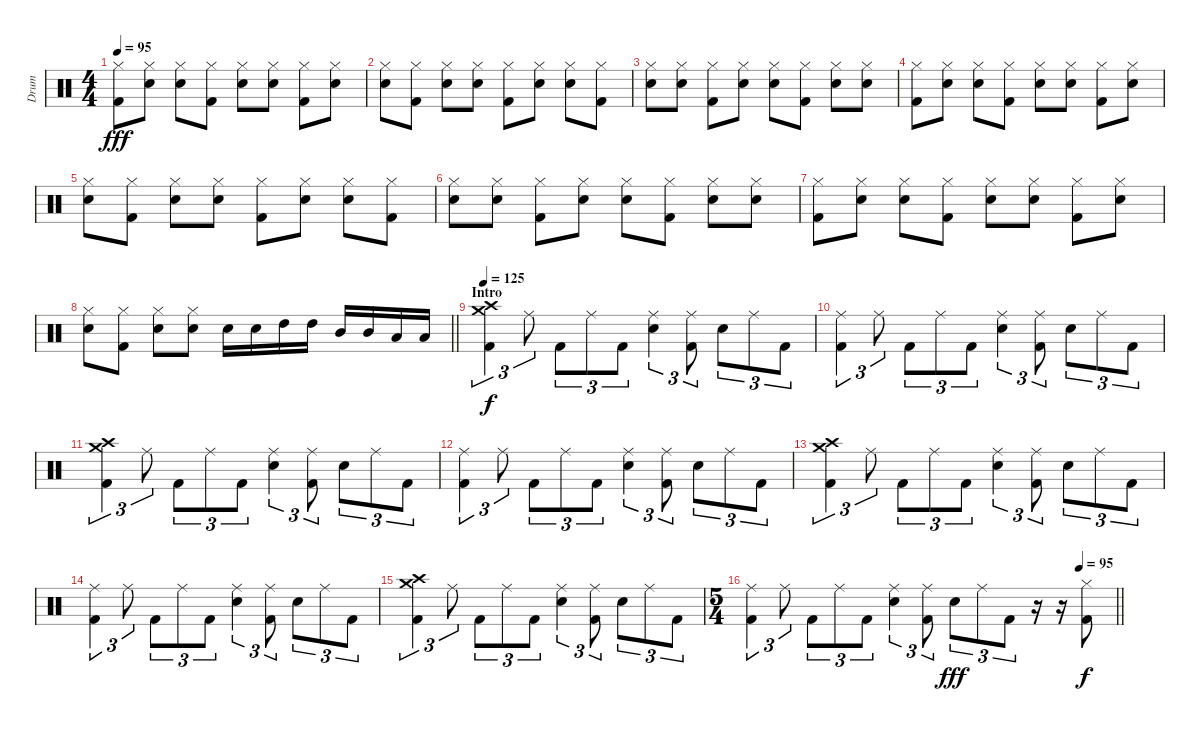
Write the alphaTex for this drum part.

\track ("Drum" "Drum") {instrument percussion}
\staff {score}
\articulation defaults
\ts (4 4)
\tempo 95
\clef neutral
\ks c
("Hi-Hat (closed)" "Kick (hit) 2").8{dy fff} ("Hi-Hat (closed)" "Snare (hit) 2").8 ("Hi-Hat (closed)" "Snare (hit) 2").8 ("Hi-Hat (closed)" "Kick (hit) 2").8 ("Hi-Hat (closed)" "Snare (hit) 2").8 ("Hi-Hat (closed)" "Snare (hit) 2").8 ("Hi-Hat (closed)" "Kick (hit) 2").8 ("Hi-Hat (closed)" "Snare (hit) 2").8 |
("Hi-Hat (closed)" "Snare (hit) 2").8 ("Hi-Hat (closed)" "Kick (hit) 2").8 ("Hi-Hat (closed)" "Snare (hit) 2").8 ("Hi-Hat (closed)" "Snare (hit) 2").8 ("Hi-Hat (closed)" "Kick (hit) 2").8 ("Hi-Hat (closed)" "Snare (hit) 2").8 ("Hi-Hat (closed)" "Snare (hit) 2").8 ("Hi-Hat (closed)" "Kick (hit) 2").8 |
("Hi-Hat (closed)" "Snare (hit) 2").8 ("Hi-Hat (closed)" "Snare (hit) 2").8 ("Hi-Hat (closed)" "Kick (hit) 2").8 ("Hi-Hat (closed)" "Snare (hit) 2").8 ("Hi-Hat (closed)" "Snare (hit) 2").8 ("Hi-Hat (closed)" "Kick (hit) 2").8 ("Hi-Hat (closed)" "Snare (hit) 2").8 ("Hi-Hat (closed)" "Snare (hit) 2").8 |
("Hi-Hat (closed)" "Kick (hit) 2").8 ("Hi-Hat (closed)" "Snare (hit) 2").8 ("Hi-Hat (closed)" "Snare (hit) 2").8 ("Hi-Hat (closed)" "Kick (hit) 2").8 ("Hi-Hat (closed)" "Snare (hit) 2").8 ("Hi-Hat (closed)" "Snare (hit) 2").8 ("Hi-Hat (closed)" "Kick (hit) 2").8 ("Hi-Hat (closed)" "Snare (hit) 2").8 |
("Hi-Hat (closed)" "Snare (hit) 2").8 ("Hi-Hat (closed)" "Kick (hit) 2").8 ("Hi-Hat (closed)" "Snare (hit) 2").8 ("Hi-Hat (closed)" "Snare (hit) 2").8 ("Hi-Hat (closed)" "Kick (hit) 2").8 ("Hi-Hat (closed)" "Snare (hit) 2").8 ("Hi-Hat (closed)" "Snare (hit) 2").8 ("Hi-Hat (closed)" "Kick (hit) 2").8 |
("Hi-Hat (closed)" "Snare (hit) 2").8 ("Hi-Hat (closed)" "Snare (hit) 2").8 ("Hi-Hat (closed)" "Kick (hit) 2").8 ("Hi-Hat (closed)" "Snare (hit) 2").8 ("Hi-Hat (closed)" "Snare (hit) 2").8 ("Hi-Hat (closed)" "Kick (hit) 2").8 ("Hi-Hat (closed)" "Snare (hit) 2").8 ("Hi-Hat (closed)" "Snare (hit) 2").8 |
("Hi-Hat (closed)" "Kick (hit) 2").8 ("Hi-Hat (closed)" "Snare (hit) 2").8 ("Hi-Hat (closed)" "Snare (hit) 2").8 ("Hi-Hat (closed)" "Kick (hit) 2").8 ("Hi-Hat (closed)" "Snare (hit) 2").8 ("Hi-Hat (closed)" "Snare (hit) 2").8 ("Hi-Hat (closed)" "Kick (hit) 2").8 ("Hi-Hat (closed)" "Snare (hit) 2").8 |
\barLineRight lightlight
("Hi-Hat (closed)" "Snare (hit) 2").8 ("Hi-Hat (closed)" "Kick (hit) 2").8 ("Hi-Hat (closed)" "Snare (hit) 2").8 ("Hi-Hat (closed)" "Snare (hit) 2").8 "Snare (hit) 2".16 "Snare (hit) 2".16 "High Tom (hit)".16 "High Tom (hit)".16 "Mid Tom (hit)".16 "Mid Tom (hit)".16 "Low Tom (hit)".16 "Low Tom (hit)".16 |
\section ("" "Intro")
\tempo 125
("Crash medium (hit)" "Crash high (hit)" "Kick (hit) 2").4{tu (3 2) dy f} "Ride (middle)".8{tu (3 2)} "Kick (hit) 2".8{tu (3 2)} "Ride (middle)".8{tu (3 2)} "Kick (hit) 2".8{tu (3 2)} ("Ride (middle)" "Snare (hit) 2").4{tu (3 2)} ("Ride (middle)" "Kick (hit) 2").8{tu (3 2)} "Snare (hit) 2".8{tu (3 2)} "Ride (middle)".8{tu (3 2)} "Kick (hit) 2".8{tu (3 2)} |
("Ride (middle)" "Kick (hit) 2").4{tu (3 2)} "Ride (middle)".8{tu (3 2)} "Kick (hit) 2".8{tu (3 2)} "Ride (middle)".8{tu (3 2)} "Kick (hit) 2".8{tu (3 2)} ("Ride (middle)" "Snare (hit) 2").4{tu (3 2)} ("Ride (middle)" "Kick (hit) 2").8{tu (3 2)} "Snare (hit) 2".8{tu (3 2)} "Ride (middle)".8{tu (3 2)} "Kick (hit) 2".8{tu (3 2)} |
("Crash medium (hit)" "Crash high (hit)" "Kick (hit) 2").4{tu (3 2)} "Ride (middle)".8{tu (3 2)} "Kick (hit) 2".8{tu (3 2)} "Ride (middle)".8{tu (3 2)} "Kick (hit) 2".8{tu (3 2)} ("Ride (middle)" "Snare (hit) 2").4{tu (3 2)} ("Ride (middle)" "Kick (hit) 2").8{tu (3 2)} "Snare (hit) 2".8{tu (3 2)} "Ride (middle)".8{tu (3 2)} "Kick (hit) 2".8{tu (3 2)} |
("Ride (middle)" "Kick (hit) 2").4{tu (3 2)} "Ride (middle)".8{tu (3 2)} "Kick (hit) 2".8{tu (3 2)} "Ride (middle)".8{tu (3 2)} "Kick (hit) 2".8{tu (3 2)} ("Ride (middle)" "Snare (hit) 2").4{tu (3 2)} ("Ride (middle)" "Kick (hit) 2").8{tu (3 2)} "Snare (hit) 2".8{tu (3 2)} "Ride (middle)".8{tu (3 2)} "Kick (hit) 2".8{tu (3 2)} |
("Crash medium (hit)" "Crash high (hit)" "Kick (hit) 2").4{tu (3 2)} "Ride (middle)".8{tu (3 2)} "Kick (hit) 2".8{tu (3 2)} "Ride (middle)".8{tu (3 2)} "Kick (hit) 2".8{tu (3 2)} ("Ride (middle)" "Snare (hit) 2").4{tu (3 2)} ("Ride (middle)" "Kick (hit) 2").8{tu (3 2)} "Snare (hit) 2".8{tu (3 2)} "Ride (middle)".8{tu (3 2)} "Kick (hit) 2".8{tu (3 2)} |
("Ride (middle)" "Kick (hit) 2").4{tu (3 2)} "Ride (middle)".8{tu (3 2)} "Kick (hit) 2".8{tu (3 2)} "Ride (middle)".8{tu (3 2)} "Kick (hit) 2".8{tu (3 2)} ("Ride (middle)" "Snare (hit) 2").4{tu (3 2)} ("Ride (middle)" "Kick (hit) 2").8{tu (3 2)} "Snare (hit) 2".8{tu (3 2)} "Ride (middle)".8{tu (3 2)} "Kick (hit) 2".8{tu (3 2)} |
("Crash medium (hit)" "Crash high (hit)" "Kick (hit) 2").4{tu (3 2)} "Ride (middle)".8{tu (3 2)} "Kick (hit) 2".8{tu (3 2)} "Ride (middle)".8{tu (3 2)} "Kick (hit) 2".8{tu (3 2)} ("Ride (middle)" "Snare (hit) 2").4{tu (3 2)} ("Ride (middle)" "Kick (hit) 2").8{tu (3 2)} "Snare (hit) 2".8{tu (3 2)} "Ride (middle)".8{tu (3 2)} "Kick (hit) 2".8{tu (3 2)} |
\ts (5 4)
\tempo (95 0.9)
\barLineRight lightlight
("Ride (middle)" "Kick (hit) 2").4{tu (3 2)} "Ride (middle)".8{tu (3 2)} "Kick (hit) 2".8{tu (3 2)} "Ride (middle)".8{tu (3 2)} "Kick (hit) 2".8{tu (3 2)} ("Ride (middle)" "Snare (hit) 2").4{tu (3 2)} ("Ride (middle)" "Kick (hit) 2").8{tu (3 2)} "Snare (hit) 2".8{tu (3 2) dy fff} "Ride (middle)".8{tu (3 2)} "Kick (hit) 2".8{tu (3 2)} r.16 r.16 ("Hi-Hat (closed)" "Kick (hit) 2").8{dy f}
